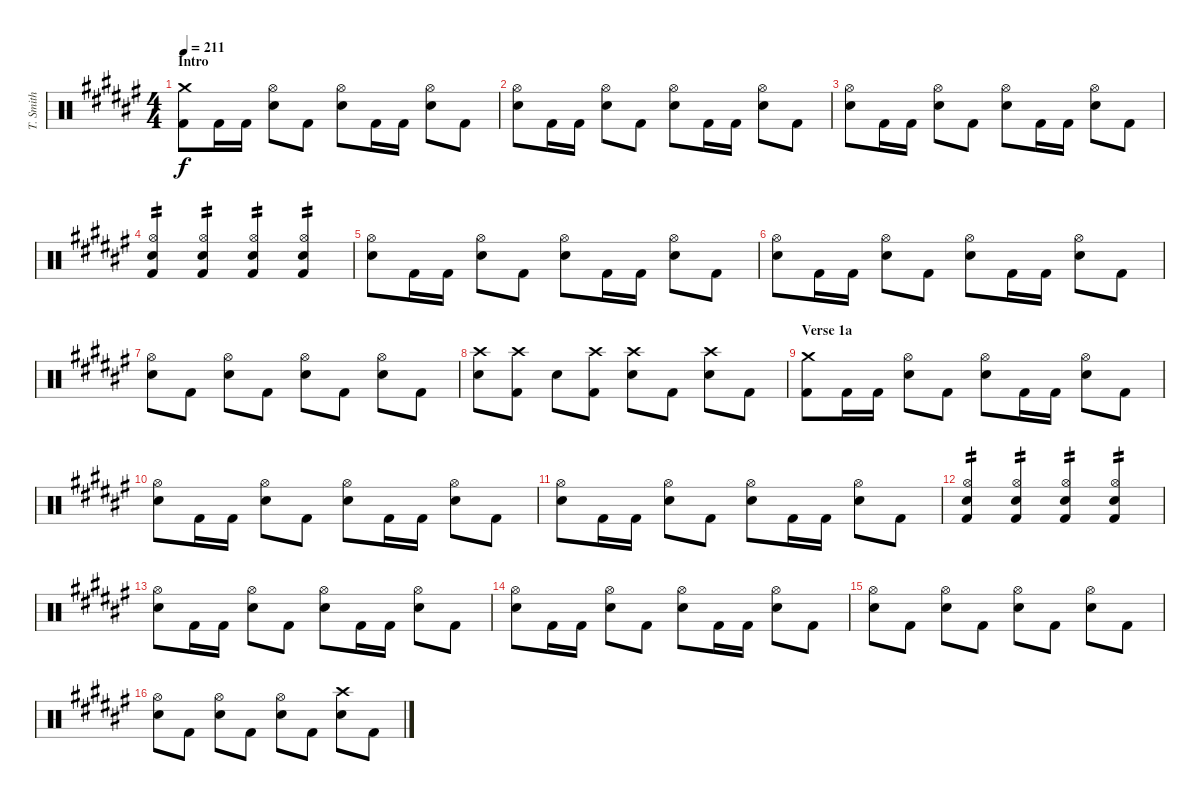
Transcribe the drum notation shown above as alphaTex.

\track ("T. Smith" "T. Smith") {instrument percussion}
\staff {score}
\articulation defaults
\ts (4 4)
\section ("" "Intro")
\tempo 211
\clef neutral
\ks d#minor
("Crash medium (hit)" "Kick (hit) 2").8{dy f} "Kick (hit) 2".16 "Kick (hit) 2".16 ("Hi-Hat (open)" "Electric Snare (hit)").8 "Kick (hit) 2".8 ("Hi-Hat (open)" "Electric Snare (hit)").8 "Kick (hit) 2".16 "Kick (hit) 2".16 ("Hi-Hat (open)" "Electric Snare (hit)").8 "Kick (hit) 2".8 |
("Hi-Hat (open)" "Electric Snare (hit)").8 "Kick (hit) 2".16 "Kick (hit) 2".16 ("Hi-Hat (open)" "Electric Snare (hit)").8 "Kick (hit) 2".8 ("Hi-Hat (open)" "Electric Snare (hit)").8 "Kick (hit) 2".16 "Kick (hit) 2".16 ("Hi-Hat (open)" "Electric Snare (hit)").8 "Kick (hit) 2".8 |
("Hi-Hat (open)" "Electric Snare (hit)").8 "Kick (hit) 2".16 "Kick (hit) 2".16 ("Hi-Hat (open)" "Electric Snare (hit)").8 "Kick (hit) 2".8 ("Hi-Hat (open)" "Electric Snare (hit)").8 "Kick (hit) 2".16 "Kick (hit) 2".16 ("Hi-Hat (open)" "Electric Snare (hit)").8 "Kick (hit) 2".8 |
("Hi-Hat (open)" "Electric Snare (hit)" "Kick (hit) 2").4{tp 2} ("Hi-Hat (open)" "Electric Snare (hit)" "Kick (hit) 2").4{tp 2} ("Hi-Hat (open)" "Electric Snare (hit)" "Kick (hit) 2").4{tp 2} ("Hi-Hat (open)" "Electric Snare (hit)" "Kick (hit) 2").4{tp 2} |
("Hi-Hat (open)" "Electric Snare (hit)").8 "Kick (hit) 2".16 "Kick (hit) 2".16 ("Hi-Hat (open)" "Electric Snare (hit)").8 "Kick (hit) 2".8 ("Hi-Hat (open)" "Electric Snare (hit)").8 "Kick (hit) 2".16 "Kick (hit) 2".16 ("Hi-Hat (open)" "Electric Snare (hit)").8 "Kick (hit) 2".8 |
("Hi-Hat (open)" "Electric Snare (hit)").8 "Kick (hit) 2".16 "Kick (hit) 2".16 ("Hi-Hat (open)" "Electric Snare (hit)").8 "Kick (hit) 2".8 ("Hi-Hat (open)" "Electric Snare (hit)").8 "Kick (hit) 2".16 "Kick (hit) 2".16 ("Hi-Hat (open)" "Electric Snare (hit)").8 "Kick (hit) 2".8 |
("Hi-Hat (open)" "Electric Snare (hit)").8 "Kick (hit) 2".8 ("Hi-Hat (open)" "Electric Snare (hit)").8 "Kick (hit) 2".8 ("Hi-Hat (open)" "Electric Snare (hit)").8 "Kick (hit) 2".8 ("Hi-Hat (open)" "Electric Snare (hit)").8 "Kick (hit) 2".8 |
("Crash high (hit)" "Electric Snare (hit)").8 ("Crash high (hit)" "Kick (hit) 2").8 "Electric Snare (hit)".8 ("Crash high (hit)" "Kick (hit) 2").8 ("Crash high (hit)" "Electric Snare (hit)").8 "Kick (hit) 2".8 ("Crash high (hit)" "Electric Snare (hit)").8 "Kick (hit) 2".8 |
\section ("" "Verse 1a")
("Crash medium (hit)" "Kick (hit) 2").8 "Kick (hit) 2".16 "Kick (hit) 2".16 ("Hi-Hat (open)" "Electric Snare (hit)").8 "Kick (hit) 2".8 ("Hi-Hat (open)" "Electric Snare (hit)").8 "Kick (hit) 2".16 "Kick (hit) 2".16 ("Hi-Hat (open)" "Electric Snare (hit)").8 "Kick (hit) 2".8 |
("Hi-Hat (open)" "Electric Snare (hit)").8 "Kick (hit) 2".16 "Kick (hit) 2".16 ("Hi-Hat (open)" "Electric Snare (hit)").8 "Kick (hit) 2".8 ("Hi-Hat (open)" "Electric Snare (hit)").8 "Kick (hit) 2".16 "Kick (hit) 2".16 ("Hi-Hat (open)" "Electric Snare (hit)").8 "Kick (hit) 2".8 |
("Hi-Hat (open)" "Electric Snare (hit)").8 "Kick (hit) 2".16 "Kick (hit) 2".16 ("Hi-Hat (open)" "Electric Snare (hit)").8 "Kick (hit) 2".8 ("Hi-Hat (open)" "Electric Snare (hit)").8 "Kick (hit) 2".16 "Kick (hit) 2".16 ("Hi-Hat (open)" "Electric Snare (hit)").8 "Kick (hit) 2".8 |
("Hi-Hat (open)" "Electric Snare (hit)" "Kick (hit) 2").4{tp 2} ("Hi-Hat (open)" "Electric Snare (hit)" "Kick (hit) 2").4{tp 2} ("Hi-Hat (open)" "Electric Snare (hit)" "Kick (hit) 2").4{tp 2} ("Hi-Hat (open)" "Electric Snare (hit)" "Kick (hit) 2").4{tp 2} |
("Hi-Hat (open)" "Electric Snare (hit)").8 "Kick (hit) 2".16 "Kick (hit) 2".16 ("Hi-Hat (open)" "Electric Snare (hit)").8 "Kick (hit) 2".8 ("Hi-Hat (open)" "Electric Snare (hit)").8 "Kick (hit) 2".16 "Kick (hit) 2".16 ("Hi-Hat (open)" "Electric Snare (hit)").8 "Kick (hit) 2".8 |
("Hi-Hat (open)" "Electric Snare (hit)").8 "Kick (hit) 2".16 "Kick (hit) 2".16 ("Hi-Hat (open)" "Electric Snare (hit)").8 "Kick (hit) 2".8 ("Hi-Hat (open)" "Electric Snare (hit)").8 "Kick (hit) 2".16 "Kick (hit) 2".16 ("Hi-Hat (open)" "Electric Snare (hit)").8 "Kick (hit) 2".8 |
("Hi-Hat (open)" "Electric Snare (hit)").8 "Kick (hit) 2".8 ("Hi-Hat (open)" "Electric Snare (hit)").8 "Kick (hit) 2".8 ("Hi-Hat (open)" "Electric Snare (hit)").8 "Kick (hit) 2".8 ("Hi-Hat (open)" "Electric Snare (hit)").8 "Kick (hit) 2".8 |
("Hi-Hat (open)" "Electric Snare (hit)").8 "Kick (hit) 2".8 ("Hi-Hat (open)" "Electric Snare (hit)").8 "Kick (hit) 2".8 ("Hi-Hat (open)" "Electric Snare (hit)").8 "Kick (hit) 2".8 ("Crash high (hit)" "Electric Snare (hit)").8 "Kick (hit) 2".8
